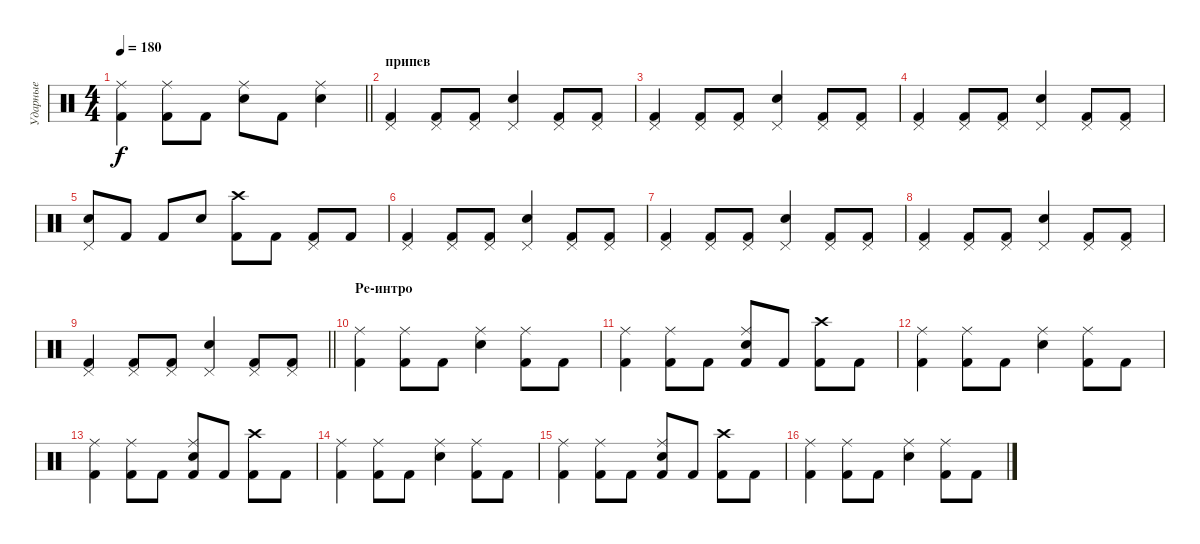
\track ("Ударные" "Ударные") {instrument percussion}
\staff {score}
\articulation defaults
\ts (4 4)
\tempo 180
\clef neutral
\barLineRight lightlight
\ks c
("Kick (hit) 2" "Ride (middle)").4{dy f} ("Kick (hit) 2" "Ride (middle)").8 "Kick (hit) 2".8 ("Snare (hit) 2" "Ride (middle)").8 "Kick (hit) 2".8 ("Snare (hit) 2" "Ride (middle)").4 |
\section ("" "припев")
("Kick (hit) 2" "Pedal Hi-Hat (hit)").4 ("Kick (hit) 2" "Pedal Hi-Hat (hit)").8 ("Kick (hit) 2" "Pedal Hi-Hat (hit)").8 ("Snare (hit) 2" "Pedal Hi-Hat (hit)").4 ("Kick (hit) 2" "Pedal Hi-Hat (hit)").8 ("Kick (hit) 2" "Pedal Hi-Hat (hit)").8 |
("Kick (hit) 2" "Pedal Hi-Hat (hit)").4 ("Kick (hit) 2" "Pedal Hi-Hat (hit)").8 ("Kick (hit) 2" "Pedal Hi-Hat (hit)").8 ("Snare (hit) 2" "Pedal Hi-Hat (hit)").4 ("Kick (hit) 2" "Pedal Hi-Hat (hit)").8 ("Kick (hit) 2" "Pedal Hi-Hat (hit)").8 |
("Kick (hit) 2" "Pedal Hi-Hat (hit)").4 ("Kick (hit) 2" "Pedal Hi-Hat (hit)").8 ("Kick (hit) 2" "Pedal Hi-Hat (hit)").8 ("Snare (hit) 2" "Pedal Hi-Hat (hit)").4 ("Kick (hit) 2" "Pedal Hi-Hat (hit)").8 ("Kick (hit) 2" "Pedal Hi-Hat (hit)").8 |
("Snare (hit) 2" "Pedal Hi-Hat (hit)").8 "Kick (hit) 2".8 "Kick (hit) 2".8 "Snare (hit) 2".8 ("Kick (hit) 2" "Crash high (hit)").8 "Kick (hit) 2".8 ("Kick (hit) 2" "Pedal Hi-Hat (hit)").8 "Kick (hit) 2".8 |
("Kick (hit) 2" "Pedal Hi-Hat (hit)").4 ("Kick (hit) 2" "Pedal Hi-Hat (hit)").8 ("Kick (hit) 2" "Pedal Hi-Hat (hit)").8 ("Snare (hit) 2" "Pedal Hi-Hat (hit)").4 ("Kick (hit) 2" "Pedal Hi-Hat (hit)").8 ("Kick (hit) 2" "Pedal Hi-Hat (hit)").8 |
("Kick (hit) 2" "Pedal Hi-Hat (hit)").4 ("Kick (hit) 2" "Pedal Hi-Hat (hit)").8 ("Kick (hit) 2" "Pedal Hi-Hat (hit)").8 ("Snare (hit) 2" "Pedal Hi-Hat (hit)").4 ("Kick (hit) 2" "Pedal Hi-Hat (hit)").8 ("Kick (hit) 2" "Pedal Hi-Hat (hit)").8 |
("Kick (hit) 2" "Pedal Hi-Hat (hit)").4 ("Kick (hit) 2" "Pedal Hi-Hat (hit)").8 ("Kick (hit) 2" "Pedal Hi-Hat (hit)").8 ("Snare (hit) 2" "Pedal Hi-Hat (hit)").4 ("Kick (hit) 2" "Pedal Hi-Hat (hit)").8 ("Kick (hit) 2" "Pedal Hi-Hat (hit)").8 |
\barLineRight lightlight
("Kick (hit) 2" "Pedal Hi-Hat (hit)").4 ("Kick (hit) 2" "Pedal Hi-Hat (hit)").8 ("Kick (hit) 2" "Pedal Hi-Hat (hit)").8 ("Snare (hit) 2" "Pedal Hi-Hat (hit)").4 ("Kick (hit) 2" "Pedal Hi-Hat (hit)").8 ("Kick (hit) 2" "Pedal Hi-Hat (hit)").8 |
\section ("" "Ре-интро")
("Kick (hit) 2" "Ride (middle)").4 ("Kick (hit) 2" "Ride (middle)").8 "Kick (hit) 2".8 ("Snare (hit) 2" "Ride (middle)").4 ("Kick (hit) 2" "Ride (middle)").8 "Kick (hit) 2".8 |
("Kick (hit) 2" "Ride (middle)").4 ("Kick (hit) 2" "Ride (middle)").8 "Kick (hit) 2".8 ("Kick (hit) 2" "Snare (hit) 2" "Ride (middle)").8 "Kick (hit) 2".8 ("Kick (hit) 2" "Crash high (hit)").8 "Kick (hit) 2".8 |
("Kick (hit) 2" "Ride (middle)").4 ("Kick (hit) 2" "Ride (middle)").8 "Kick (hit) 2".8 ("Snare (hit) 2" "Ride (middle)").4 ("Kick (hit) 2" "Ride (middle)").8 "Kick (hit) 2".8 |
("Kick (hit) 2" "Ride (middle)").4 ("Kick (hit) 2" "Ride (middle)").8 "Kick (hit) 2".8 ("Kick (hit) 2" "Snare (hit) 2" "Ride (middle)").8 "Kick (hit) 2".8 ("Kick (hit) 2" "Crash high (hit)").8 "Kick (hit) 2".8 |
("Kick (hit) 2" "Ride (middle)").4 ("Kick (hit) 2" "Ride (middle)").8 "Kick (hit) 2".8 ("Snare (hit) 2" "Ride (middle)").4 ("Kick (hit) 2" "Ride (middle)").8 "Kick (hit) 2".8 |
("Kick (hit) 2" "Ride (middle)").4 ("Kick (hit) 2" "Ride (middle)").8 "Kick (hit) 2".8 ("Kick (hit) 2" "Snare (hit) 2" "Ride (middle)").8 "Kick (hit) 2".8 ("Kick (hit) 2" "Crash high (hit)").8 "Kick (hit) 2".8 |
("Kick (hit) 2" "Ride (middle)").4 ("Kick (hit) 2" "Ride (middle)").8 "Kick (hit) 2".8 ("Snare (hit) 2" "Ride (middle)").4 ("Kick (hit) 2" "Ride (middle)").8 "Kick (hit) 2".8
